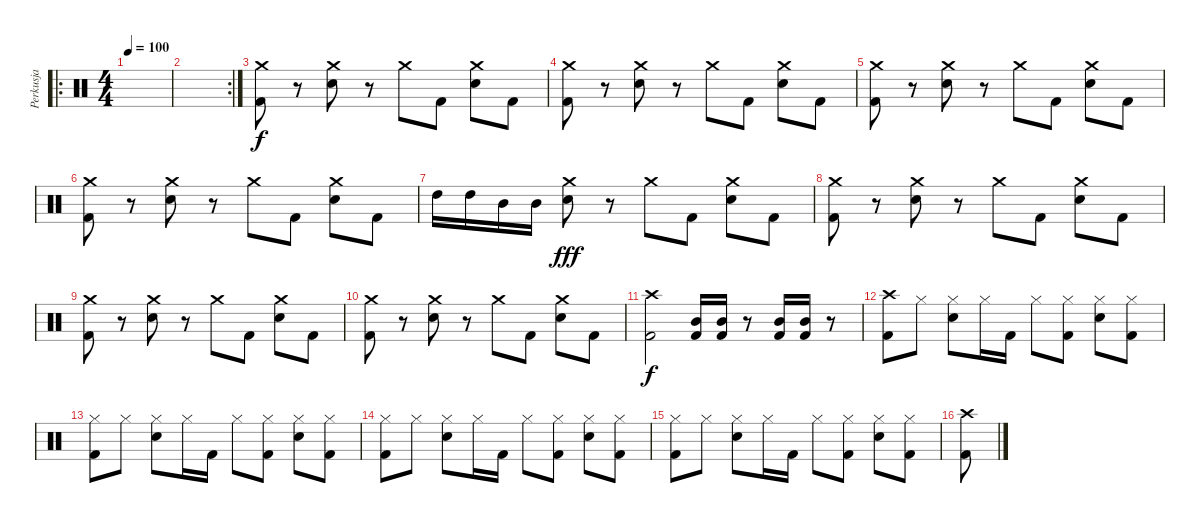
\track ("Perkusja" "Perkusja") {instrument percussion}
\staff {score}
\articulation defaults
\ro
\ts (4 4)
\tempo 100
\clef neutral
\ks c
|
\rc 2
|
("Kick (hit) 2" "Crash medium (hit)").8 r.8 ("Crash medium (hit)" "Snare (hit) 2").8 r.8 "Crash medium (hit)".8 "Kick (hit) 2".8 ("Crash medium (hit)" "Snare (hit) 2").8 "Kick (hit) 2".8 |
("Kick (hit) 2" "Crash medium (hit)").8 r.8 ("Crash medium (hit)" "Snare (hit) 2").8 r.8 "Crash medium (hit)".8 "Kick (hit) 2".8 ("Crash medium (hit)" "Snare (hit) 2").8 "Kick (hit) 2".8 |
("Kick (hit) 2" "Crash medium (hit)").8 r.8 ("Crash medium (hit)" "Snare (hit) 2").8 r.8 "Crash medium (hit)".8 "Kick (hit) 2".8 ("Crash medium (hit)" "Snare (hit) 2").8 "Kick (hit) 2".8 |
("Kick (hit) 2" "Crash medium (hit)").8 r.8 ("Crash medium (hit)" "Snare (hit) 2").8 r.8 "Crash medium (hit)".8 "Kick (hit) 2".8 ("Crash medium (hit)" "Snare (hit) 2").8 "Kick (hit) 2".8 |
"High Tom (hit)".16 "High Tom (hit)".16{dy f} "Mid Tom (hit)".16 "Mid Tom (hit)".16 ("Crash medium (hit)" "Snare (hit) 2").8{dy fff} r.8 "Crash medium (hit)".8 "Kick (hit) 2".8 ("Crash medium (hit)" "Snare (hit) 2").8 "Kick (hit) 2".8 |
("Kick (hit) 2" "Crash medium (hit)").8 r.8 ("Crash medium (hit)" "Snare (hit) 2").8 r.8 "Crash medium (hit)".8 "Kick (hit) 2".8 ("Crash medium (hit)" "Snare (hit) 2").8 "Kick (hit) 2".8 |
("Kick (hit) 2" "Crash medium (hit)").8 r.8 ("Crash medium (hit)" "Snare (hit) 2").8 r.8 "Crash medium (hit)".8 "Kick (hit) 2".8 ("Crash medium (hit)" "Snare (hit) 2").8 "Kick (hit) 2".8 |
("Kick (hit) 2" "Crash medium (hit)").8 r.8 ("Crash medium (hit)" "Snare (hit) 2").8 r.8 "Crash medium (hit)".8 "Kick (hit) 2".8 ("Crash medium (hit)" "Snare (hit) 2").8 "Kick (hit) 2".8 |
("Crash high (hit)" "Kick (hit) 2").2{dy f} ("Mid Tom (hit)" "Kick (hit) 2").16 ("Mid Tom (hit)" "Kick (hit) 2").16 r.8 ("Mid Tom (hit)" "Kick (hit) 2").16 ("Mid Tom (hit)" "Kick (hit) 2").16 r.8 |
("Crash high (hit)" "Kick (hit) 2").8 "Hi-Hat (closed)".8 ("Hi-Hat (closed)" "Snare (hit) 2").8 "Hi-Hat (closed)".16 "Kick (hit) 2".16 "Hi-Hat (closed)".8 ("Hi-Hat (closed)" "Kick (hit) 2").8 ("Hi-Hat (closed)" "Snare (hit) 2").8 ("Hi-Hat (closed)" "Kick (hit) 2").8 |
("Hi-Hat (closed)" "Kick (hit) 2").8 "Hi-Hat (closed)".8 ("Hi-Hat (closed)" "Snare (hit) 2").8 "Hi-Hat (closed)".16 "Kick (hit) 2".16 "Hi-Hat (closed)".8 ("Hi-Hat (closed)" "Kick (hit) 2").8 ("Hi-Hat (closed)" "Snare (hit) 2").8 ("Hi-Hat (closed)" "Kick (hit) 2").8 |
("Hi-Hat (closed)" "Kick (hit) 2").8 "Hi-Hat (closed)".8 ("Hi-Hat (closed)" "Snare (hit) 2").8 "Hi-Hat (closed)".16 "Kick (hit) 2".16 "Hi-Hat (closed)".8 ("Hi-Hat (closed)" "Kick (hit) 2").8 ("Hi-Hat (closed)" "Snare (hit) 2").8 ("Hi-Hat (closed)" "Kick (hit) 2").8 |
("Hi-Hat (closed)" "Kick (hit) 2").8 "Hi-Hat (closed)".8 ("Hi-Hat (closed)" "Snare (hit) 2").8 "Hi-Hat (closed)".16 "Kick (hit) 2".16 "Hi-Hat (closed)".8 ("Hi-Hat (closed)" "Kick (hit) 2").8 ("Hi-Hat (closed)" "Snare (hit) 2").8 ("Hi-Hat (closed)" "Kick (hit) 2").8 |
("Crash high (hit)" "Kick (hit) 2").8
